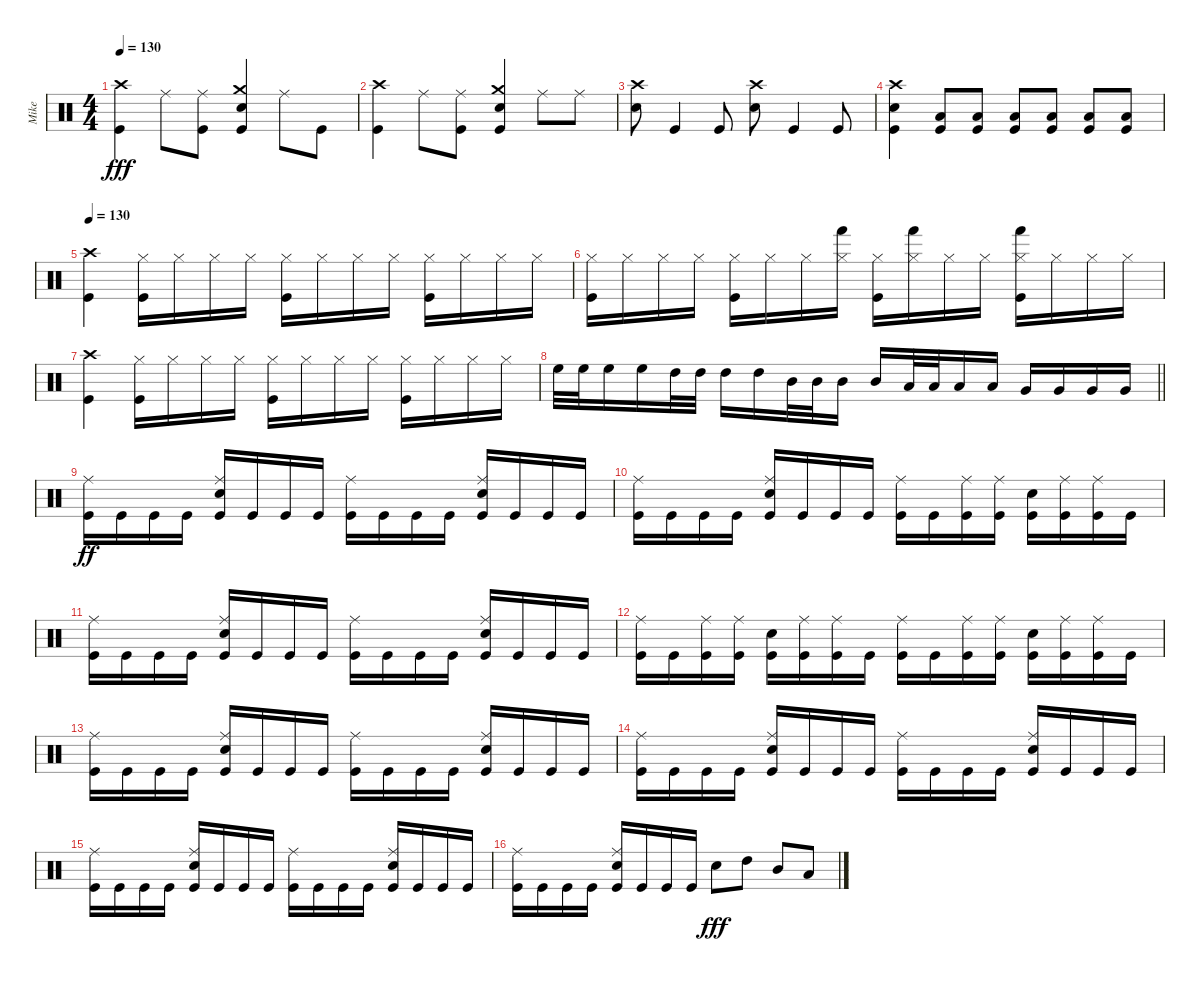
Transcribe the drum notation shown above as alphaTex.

\track ("Mike" "Mike") {instrument percussion}
\staff {score}
\articulation defaults
\ts (4 4)
\tempo 130
\clef neutral
\ks c
("Crash high (hit)" "Kick (hit)").4{dy fff} "Ride (middle)".8 ("Ride (middle)" "Kick (hit)").8 ("Crash medium (hit)" "Kick (hit)" "Snare (hit) 2").4 "Ride (middle)".8 "Kick (hit)".8 |
("Crash high (hit)" "Kick (hit)").4 "Ride (middle)".8 ("Ride (middle)" "Kick (hit)").8 ("Kick (hit)" "Crash medium (hit)" "Snare (hit) 2").4 "Ride (middle)".8 "Ride (middle)".8 |
("Snare (hit) 2" "Crash high (hit)").8 "Kick (hit)".4 "Kick (hit)".8 ("Snare (hit) 2" "Crash high (hit)").8 "Kick (hit)".4 "Kick (hit)".8 |
("Snare (hit) 2" "Kick (hit)" "Crash high (hit)").4 ("Low Floor Tom (hit)" "Kick (hit)").8 ("Low Floor Tom (hit)" "Kick (hit)").8 ("Low Floor Tom (hit)" "Kick (hit)").8 ("Low Floor Tom (hit)" "Kick (hit)").8 ("Low Floor Tom (hit)" "Kick (hit)").8 ("Low Floor Tom (hit)" "Kick (hit)").8 |
\tempo 130
("Crash high (hit)" "Kick (hit)").4 ("Hi-Hat (closed)" "Kick (hit)").16 "Hi-Hat (closed)".16 "Hi-Hat (closed)".16 "Hi-Hat (closed)".16 ("Hi-Hat (closed)" "Kick (hit)").16 "Hi-Hat (closed)".16 "Hi-Hat (closed)".16 "Hi-Hat (closed)".16 ("Hi-Hat (closed)" "Kick (hit)").16 "Hi-Hat (closed)".16 "Hi-Hat (closed)".16 "Hi-Hat (closed)".16 |
("Hi-Hat (closed)" "Kick (hit)").16 "Hi-Hat (closed)".16 "Hi-Hat (closed)".16 "Hi-Hat (closed)".16 ("Hi-Hat (closed)" "Kick (hit)").16 "Hi-Hat (closed)".16 "Hi-Hat (closed)".16 ("Hi-Hat (closed)" "Hand (hit)").16 ("Hi-Hat (closed)" "Kick (hit)").16 ("Hand (hit)" "Hi-Hat (closed)").16 "Hi-Hat (closed)".16 "Hi-Hat (closed)".16 ("Hand (hit)" "Hi-Hat (closed)" "Kick (hit)").16 "Hi-Hat (closed)".16 "Hi-Hat (closed)".16 "Hi-Hat (closed)".16 |
("Crash high (hit)" "Kick (hit)").4 ("Hi-Hat (closed)" "Kick (hit)").16 "Hi-Hat (closed)".16 "Hi-Hat (closed)".16 "Hi-Hat (closed)".16 ("Hi-Hat (closed)" "Kick (hit)").16 "Hi-Hat (closed)".16 "Hi-Hat (closed)".16 "Hi-Hat (closed)".16 ("Hi-Hat (closed)" "Kick (hit)").16 "Hi-Hat (closed)".16 "Hi-Hat (closed)".16 "Hi-Hat (closed)".16 |
\barLineRight lightlight "High Floor Tom (hit)".32 "High Floor Tom (hit)".32 "High Floor Tom (hit)".16 "High Floor Tom (hit)".16 "High Tom (hit)".32 "High Tom (hit)".32 "High Tom (hit)".16 "High Tom (hit)".16 "Mid Tom (hit)".32 "Mid Tom (hit)".32 "Mid Tom (hit)".16 "Mid Tom (hit)".16 "Low Tom (hit)".32 "Low Tom (hit)".32 "Low Tom (hit)".16 "Low Tom (hit)".16 "Very Low Tom (hit)".16 "Very Low Tom (hit)".16 "Very Low Tom (hit)".16 "Very Low Tom (hit)".16
|
("Ride (middle)" "Kick (hit)").16{dy ff} "Kick (hit)".16 "Kick (hit)".16 "Kick (hit)".16 ("Snare (hit) 2" "Ride (middle)" "Kick (hit)").16 "Kick (hit)".16 "Kick (hit)".16 "Kick (hit)".16 ("Ride (middle)" "Kick (hit)").16 "Kick (hit)".16 "Kick (hit)".16 "Kick (hit)".16 ("Snare (hit) 2" "Ride (middle)" "Kick (hit)").16 "Kick (hit)".16 "Kick (hit)".16 "Kick (hit)".16 |
("Ride (middle)" "Kick (hit)").16 "Kick (hit)".16 "Kick (hit)".16 "Kick (hit)".16 ("Snare (hit) 2" "Ride (middle)" "Kick (hit)").16 "Kick (hit)".16 "Kick (hit)".16 "Kick (hit)".16 ("Ride (middle)" "Kick (hit)").16 "Kick (hit)".16 ("Ride (middle)" "Kick (hit)").16 ("Ride (middle)" "Kick (hit)").16 ("Snare (hit) 2" "Kick (hit)").16 ("Ride (middle)" "Kick (hit)").16 ("Ride (middle)" "Kick (hit)").16 "Kick (hit)".16 |
("Ride (middle)" "Kick (hit)").16 "Kick (hit)".16 "Kick (hit)".16 "Kick (hit)".16 ("Snare (hit) 2" "Ride (middle)" "Kick (hit)").16 "Kick (hit)".16 "Kick (hit)".16 "Kick (hit)".16 ("Ride (middle)" "Kick (hit)").16 "Kick (hit)".16 "Kick (hit)".16 "Kick (hit)".16 ("Snare (hit) 2" "Ride (middle)" "Kick (hit)").16 "Kick (hit)".16 "Kick (hit)".16 "Kick (hit)".16 |
("Ride (middle)" "Kick (hit)").16 "Kick (hit)".16 ("Ride (middle)" "Kick (hit)").16 ("Ride (middle)" "Kick (hit)").16 ("Snare (hit) 2" "Kick (hit)").16 ("Ride (middle)" "Kick (hit)").16 ("Ride (middle)" "Kick (hit)").16 "Kick (hit)".16 ("Ride (middle)" "Kick (hit)").16 "Kick (hit)".16 ("Ride (middle)" "Kick (hit)").16 ("Ride (middle)" "Kick (hit)").16 ("Snare (hit) 2" "Kick (hit)").16 ("Ride (middle)" "Kick (hit)").16 ("Ride (middle)" "Kick (hit)").16 "Kick (hit)".16 |
("Ride (middle)" "Kick (hit)").16 "Kick (hit)".16 "Kick (hit)".16 "Kick (hit)".16 ("Snare (hit) 2" "Ride (middle)" "Kick (hit)").16 "Kick (hit)".16 "Kick (hit)".16 "Kick (hit)".16 ("Ride (middle)" "Kick (hit)").16 "Kick (hit)".16 "Kick (hit)".16 "Kick (hit)".16 ("Snare (hit) 2" "Ride (middle)" "Kick (hit)").16 "Kick (hit)".16 "Kick (hit)".16 "Kick (hit)".16 |
("Ride (middle)" "Kick (hit)").16 "Kick (hit)".16 "Kick (hit)".16 "Kick (hit)".16 ("Snare (hit) 2" "Ride (middle)" "Kick (hit)").16 "Kick (hit)".16 "Kick (hit)".16 "Kick (hit)".16 ("Ride (middle)" "Kick (hit)").16 "Kick (hit)".16 "Kick (hit)".16 "Kick (hit)".16 ("Snare (hit) 2" "Ride (middle)" "Kick (hit)").16 "Kick (hit)".16 "Kick (hit)".16 "Kick (hit)".16 |
("Ride (middle)" "Kick (hit)").16 "Kick (hit)".16 "Kick (hit)".16 "Kick (hit)".16 ("Snare (hit) 2" "Ride (middle)" "Kick (hit)").16 "Kick (hit)".16 "Kick (hit)".16 "Kick (hit)".16 ("Ride (middle)" "Kick (hit)").16 "Kick (hit)".16 "Kick (hit)".16 "Kick (hit)".16 ("Snare (hit) 2" "Ride (middle)" "Kick (hit)").16 "Kick (hit)".16 "Kick (hit)".16 "Kick (hit)".16 |
("Ride (middle)" "Kick (hit)").16 "Kick (hit)".16 "Kick (hit)".16 "Kick (hit)".16 ("Snare (hit) 2" "Ride (middle)" "Kick (hit)").16 "Kick (hit)".16 "Kick (hit)".16 "Kick (hit)".16 "Snare (hit) 2".8{dy fff} "High Tom (hit)".8 "Mid Tom (hit)".8 "Low Tom (hit)".8
